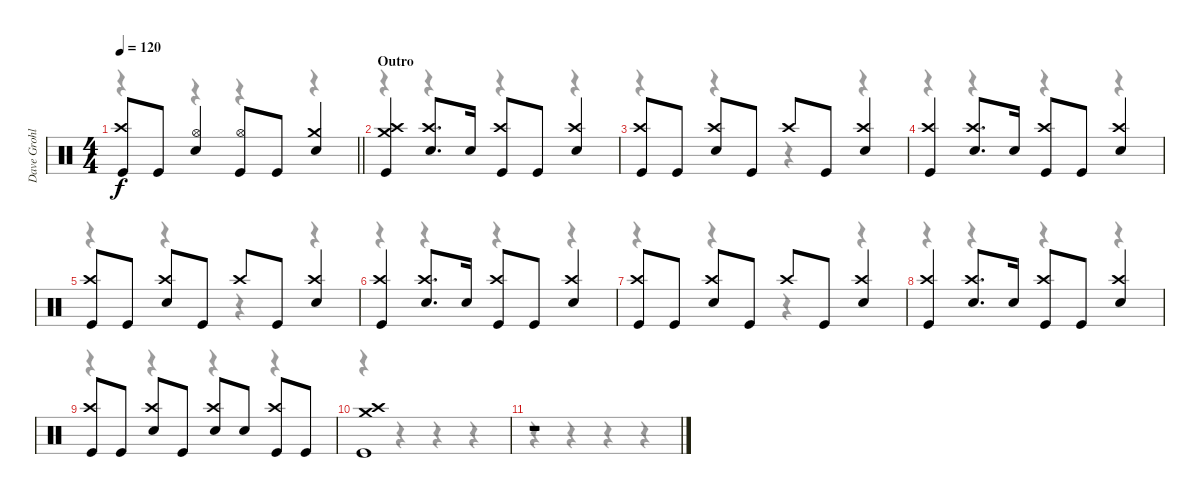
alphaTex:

\track ("Dave Grohl" "Dave Grohl") {instrument percussion}
\staff {score}
\articulation defaults
\voice
\ts (4 4)
\tempo 120
\clef neutral
\barLineRight lightlight
\ks c
("Crash high (hit)" "Kick (hit)").8{dy f} "Kick (hit)".8 ("Hi-Hat (open)" "Snare (hit) 2").4 ("Hi-Hat (open)" "Kick (hit)").8 "Kick (hit)".8 ("Crash medium (hit)" "Snare (hit) 2").4 |
\section ("" "Outro")
("Crash medium (hit)" "Crash high (hit)" "Kick (hit)").4 ("Crash high (hit)" "Snare (hit) 2").8{d} "Snare (hit) 2".16 ("Crash high (hit)" "Kick (hit)").8 "Kick (hit)".8 ("Crash high (hit)" "Snare (hit) 2").4 |
("Crash high (hit)" "Kick (hit)").8 "Kick (hit)".8 ("Crash high (hit)" "Snare (hit) 2").8 "Kick (hit)".8 "Crash high (hit)".8 "Kick (hit)".8 ("Crash high (hit)" "Snare (hit) 2").4 |
("Crash high (hit)" "Kick (hit)").4 ("Crash high (hit)" "Snare (hit) 2").8{d} "Snare (hit) 2".16 ("Crash high (hit)" "Kick (hit)").8 "Kick (hit)".8 ("Crash high (hit)" "Snare (hit) 2").4 |
("Crash high (hit)" "Kick (hit)").8 "Kick (hit)".8 ("Crash high (hit)" "Snare (hit) 2").8 "Kick (hit)".8 "Crash high (hit)".8 "Kick (hit)".8 ("Crash high (hit)" "Snare (hit) 2").4 |
("Crash high (hit)" "Kick (hit)").4 ("Crash high (hit)" "Snare (hit) 2").8{d} "Snare (hit) 2".16 ("Crash high (hit)" "Kick (hit)").8 "Kick (hit)".8 ("Crash high (hit)" "Snare (hit) 2").4 |
("Crash high (hit)" "Kick (hit)").8 "Kick (hit)".8 ("Crash high (hit)" "Snare (hit) 2").8 "Kick (hit)".8 "Crash high (hit)".8 "Kick (hit)".8 ("Crash high (hit)" "Snare (hit) 2").4 |
("Crash high (hit)" "Kick (hit)").4 ("Crash high (hit)" "Snare (hit) 2").8{d} "Snare (hit) 2".16 ("Crash high (hit)" "Kick (hit)").8 "Kick (hit)".8 ("Crash high (hit)" "Snare (hit) 2").4 |
("Crash high (hit)" "Kick (hit)").8 "Kick (hit)".8 ("Crash high (hit)" "Snare (hit) 2").8 "Kick (hit)".8 ("Crash high (hit)" "Snare (hit) 2").8 "Snare (hit) 2".8 ("Crash high (hit)" "Kick (hit)").8 "Kick (hit)".8 |
("Crash medium (hit)" "Crash high (hit)" "Kick (hit)").1 |
r.1
\voice
\clef neutral
\ottava regular
\simile none
\barLineRight lightlight
\ks c
r.4{dy f} r.4 r.4 r.4 |
r.4 r.4 r.4 r.4 |
r.4 r.4 r.4 r.4 |
r.4 r.4 r.4 r.4 |
r.4 r.4 r.4 r.4 |
r.4 r.4 r.4 r.4 |
r.4 r.4 r.4 r.4 |
r.4 r.4 r.4 r.4 |
r.4 r.4 r.4 r.4 |
r.4 r.4 r.4 r.4 |
r.4 r.4 r.4 r.4
